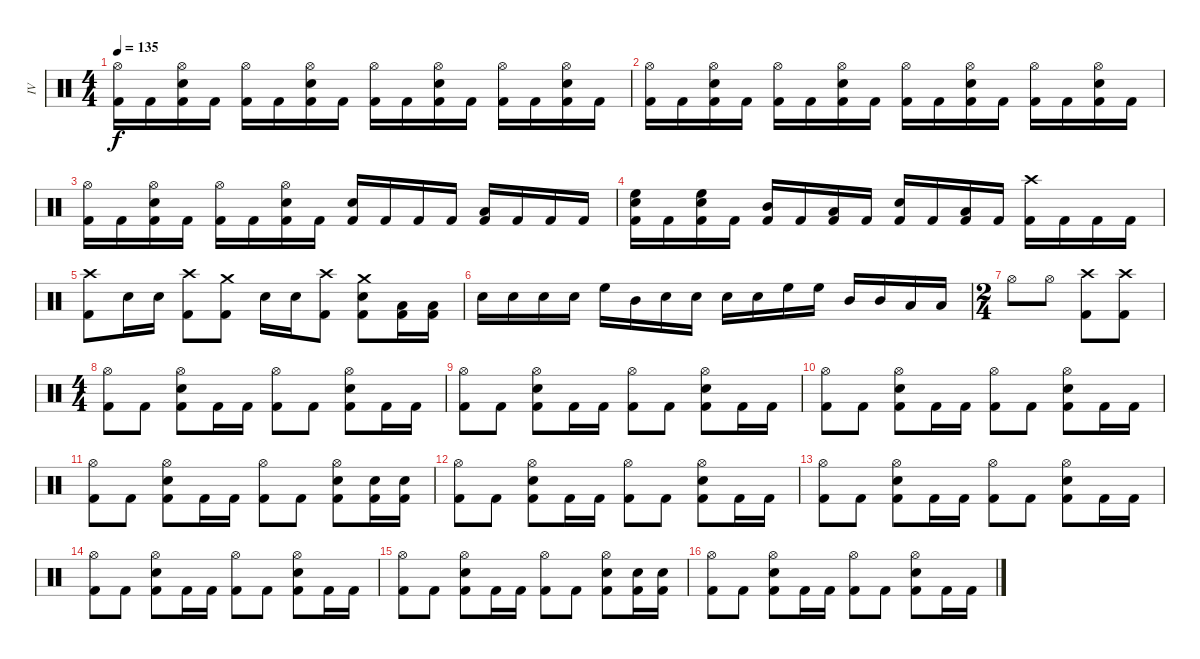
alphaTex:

\track ("IV" "IV") {instrument percussion}
\staff {score}
\articulation defaults
\ts (4 4)
\tempo 135
\clef neutral
\ks c
("Hi-Hat (open)" "Kick (hit) 2").16{dy f} "Kick (hit) 2".16 ("Hi-Hat (open)" "Snare (hit) 2" "Kick (hit) 2").16 "Kick (hit) 2".16 ("Hi-Hat (open)" "Kick (hit) 2").16 "Kick (hit) 2".16 ("Hi-Hat (open)" "Snare (hit) 2" "Kick (hit) 2").16 "Kick (hit) 2".16 ("Hi-Hat (open)" "Kick (hit) 2").16 "Kick (hit) 2".16 ("Hi-Hat (open)" "Snare (hit) 2" "Kick (hit) 2").16 "Kick (hit) 2".16 ("Hi-Hat (open)" "Kick (hit) 2").16 "Kick (hit) 2".16 ("Hi-Hat (open)" "Snare (hit) 2" "Kick (hit) 2").16 "Kick (hit) 2".16 |
("Hi-Hat (open)" "Kick (hit) 2").16 "Kick (hit) 2".16 ("Hi-Hat (open)" "Snare (hit) 2" "Kick (hit) 2").16 "Kick (hit) 2".16 ("Hi-Hat (open)" "Kick (hit) 2").16 "Kick (hit) 2".16 ("Hi-Hat (open)" "Snare (hit) 2" "Kick (hit) 2").16 "Kick (hit) 2".16 ("Hi-Hat (open)" "Kick (hit) 2").16 "Kick (hit) 2".16 ("Hi-Hat (open)" "Snare (hit) 2" "Kick (hit) 2").16 "Kick (hit) 2".16 ("Hi-Hat (open)" "Kick (hit) 2").16 "Kick (hit) 2".16 ("Hi-Hat (open)" "Snare (hit) 2" "Kick (hit) 2").16 "Kick (hit) 2".16 |
("Hi-Hat (open)" "Kick (hit) 2").16 "Kick (hit) 2".16 ("Hi-Hat (open)" "Snare (hit) 2" "Kick (hit) 2").16 "Kick (hit) 2".16 ("Hi-Hat (open)" "Kick (hit) 2").16 "Kick (hit) 2".16 ("Hi-Hat (open)" "Snare (hit) 2" "Kick (hit) 2").16 "Kick (hit) 2".16 ("Snare (hit) 2" "Kick (hit) 2").16 "Kick (hit) 2".16 "Kick (hit) 2".16 "Kick (hit) 2".16 ("Low Tom (hit)" "Kick (hit) 2").16 "Kick (hit) 2".16 "Kick (hit) 2".16 "Kick (hit) 2".16 |
("High Floor Tom (hit)" "Snare (hit) 2" "Kick (hit) 2").16 "Kick (hit) 2".16 ("High Floor Tom (hit)" "Snare (hit) 2" "Kick (hit) 2").16 "Kick (hit) 2".16 ("Mid Tom (hit)" "Kick (hit) 2").16 "Kick (hit) 2".16 ("Low Tom (hit)" "Kick (hit) 2").16 "Kick (hit) 2".16 ("Snare (hit) 2" "Kick (hit) 2").16 "Kick (hit) 2".16 ("Low Tom (hit)" "Kick (hit) 2").16 "Kick (hit) 2".16 ("Crash high (hit)" "Kick (hit) 2").16 "Kick (hit) 2".16 "Kick (hit) 2".16 "Kick (hit) 2".16 |
("Crash high (hit)" "Kick (hit) 2").8 "Snare (hit) 2".16 "Snare (hit) 2".16 ("Crash high (hit)" "Kick (hit) 2").8 ("Crash medium (hit)" "Kick (hit) 2").8 "Snare (hit) 2".16 "Snare (hit) 2".16 ("Crash high (hit)" "Kick (hit) 2").8 ("Crash medium (hit)" "Snare (hit) 2" "Kick (hit) 2").8 ("Low Tom (hit)" "Kick (hit) 2").16 ("Low Tom (hit)" "Kick (hit) 2").16 |
"Snare (hit) 2".16 "Snare (hit) 2".16 "Snare (hit) 2".16 "Snare (hit) 2".16 "High Floor Tom (hit)".16 "Mid Tom (hit)".16 "Snare (hit) 2".16 "Snare (hit) 2".16 "Snare (hit) 2".16 "Snare (hit) 2".16 "High Floor Tom (hit)".16 "High Floor Tom (hit)".16 "Mid Tom (hit)".16 "Mid Tom (hit)".16 "Low Tom (hit)".16 "Low Tom (hit)".16 |
\ts (2 4)
"Hi-Hat (open)".8 "Hi-Hat (open)".8 ("Crash high (hit)" "Kick (hit) 2").8 ("Crash high (hit)" "Kick (hit) 2").8 |
\ts (4 4)
("Hi-Hat (open)" "Kick (hit) 2").8 "Kick (hit) 2".8 ("Hi-Hat (open)" "Snare (hit) 2" "Kick (hit) 2").8 "Kick (hit) 2".16 "Kick (hit) 2".16 ("Hi-Hat (open)" "Kick (hit) 2").8 "Kick (hit) 2".8 ("Hi-Hat (open)" "Snare (hit) 2" "Kick (hit) 2").8 "Kick (hit) 2".16 "Kick (hit) 2".16 |
("Hi-Hat (open)" "Kick (hit) 2").8 "Kick (hit) 2".8 ("Hi-Hat (open)" "Snare (hit) 2" "Kick (hit) 2").8 "Kick (hit) 2".16 "Kick (hit) 2".16 ("Hi-Hat (open)" "Kick (hit) 2").8 "Kick (hit) 2".8 ("Hi-Hat (open)" "Snare (hit) 2" "Kick (hit) 2").8 "Kick (hit) 2".16 "Kick (hit) 2".16 |
("Hi-Hat (open)" "Kick (hit) 2").8 "Kick (hit) 2".8 ("Hi-Hat (open)" "Snare (hit) 2" "Kick (hit) 2").8 "Kick (hit) 2".16 "Kick (hit) 2".16 ("Hi-Hat (open)" "Kick (hit) 2").8 "Kick (hit) 2".8 ("Hi-Hat (open)" "Snare (hit) 2" "Kick (hit) 2").8 "Kick (hit) 2".16 "Kick (hit) 2".16 |
("Hi-Hat (open)" "Kick (hit) 2").8 "Kick (hit) 2".8 ("Hi-Hat (open)" "Snare (hit) 2" "Kick (hit) 2").8 "Kick (hit) 2".16 "Kick (hit) 2".16 ("Hi-Hat (open)" "Kick (hit) 2").8 "Kick (hit) 2".8 ("Hi-Hat (open)" "Snare (hit) 2" "Kick (hit) 2").8 ("Snare (hit) 2" "Kick (hit) 2").16 ("Snare (hit) 2" "Kick (hit) 2").16 |
("Hi-Hat (open)" "Kick (hit) 2").8 "Kick (hit) 2".8 ("Hi-Hat (open)" "Snare (hit) 2" "Kick (hit) 2").8 "Kick (hit) 2".16 "Kick (hit) 2".16 ("Hi-Hat (open)" "Kick (hit) 2").8 "Kick (hit) 2".8 ("Hi-Hat (open)" "Snare (hit) 2" "Kick (hit) 2").8 "Kick (hit) 2".16 "Kick (hit) 2".16 |
("Hi-Hat (open)" "Kick (hit) 2").8 "Kick (hit) 2".8 ("Hi-Hat (open)" "Snare (hit) 2" "Kick (hit) 2").8 "Kick (hit) 2".16 "Kick (hit) 2".16 ("Hi-Hat (open)" "Kick (hit) 2").8 "Kick (hit) 2".8 ("Hi-Hat (open)" "Snare (hit) 2" "Kick (hit) 2").8 "Kick (hit) 2".16 "Kick (hit) 2".16 |
("Hi-Hat (open)" "Kick (hit) 2").8 "Kick (hit) 2".8 ("Hi-Hat (open)" "Snare (hit) 2" "Kick (hit) 2").8 "Kick (hit) 2".16 "Kick (hit) 2".16 ("Hi-Hat (open)" "Kick (hit) 2").8 "Kick (hit) 2".8 ("Hi-Hat (open)" "Snare (hit) 2" "Kick (hit) 2").8 "Kick (hit) 2".16 "Kick (hit) 2".16 |
("Hi-Hat (open)" "Kick (hit) 2").8 "Kick (hit) 2".8 ("Hi-Hat (open)" "Snare (hit) 2" "Kick (hit) 2").8 "Kick (hit) 2".16 "Kick (hit) 2".16 ("Hi-Hat (open)" "Kick (hit) 2").8 "Kick (hit) 2".8 ("Hi-Hat (open)" "Snare (hit) 2" "Kick (hit) 2").8 ("Snare (hit) 2" "Kick (hit) 2").16 ("Snare (hit) 2" "Kick (hit) 2").16 |
("Hi-Hat (open)" "Kick (hit) 2").8 "Kick (hit) 2".8 ("Hi-Hat (open)" "Snare (hit) 2" "Kick (hit) 2").8 "Kick (hit) 2".16 "Kick (hit) 2".16 ("Hi-Hat (open)" "Kick (hit) 2").8 "Kick (hit) 2".8 ("Hi-Hat (open)" "Snare (hit) 2" "Kick (hit) 2").8 "Kick (hit) 2".16 "Kick (hit) 2".16
